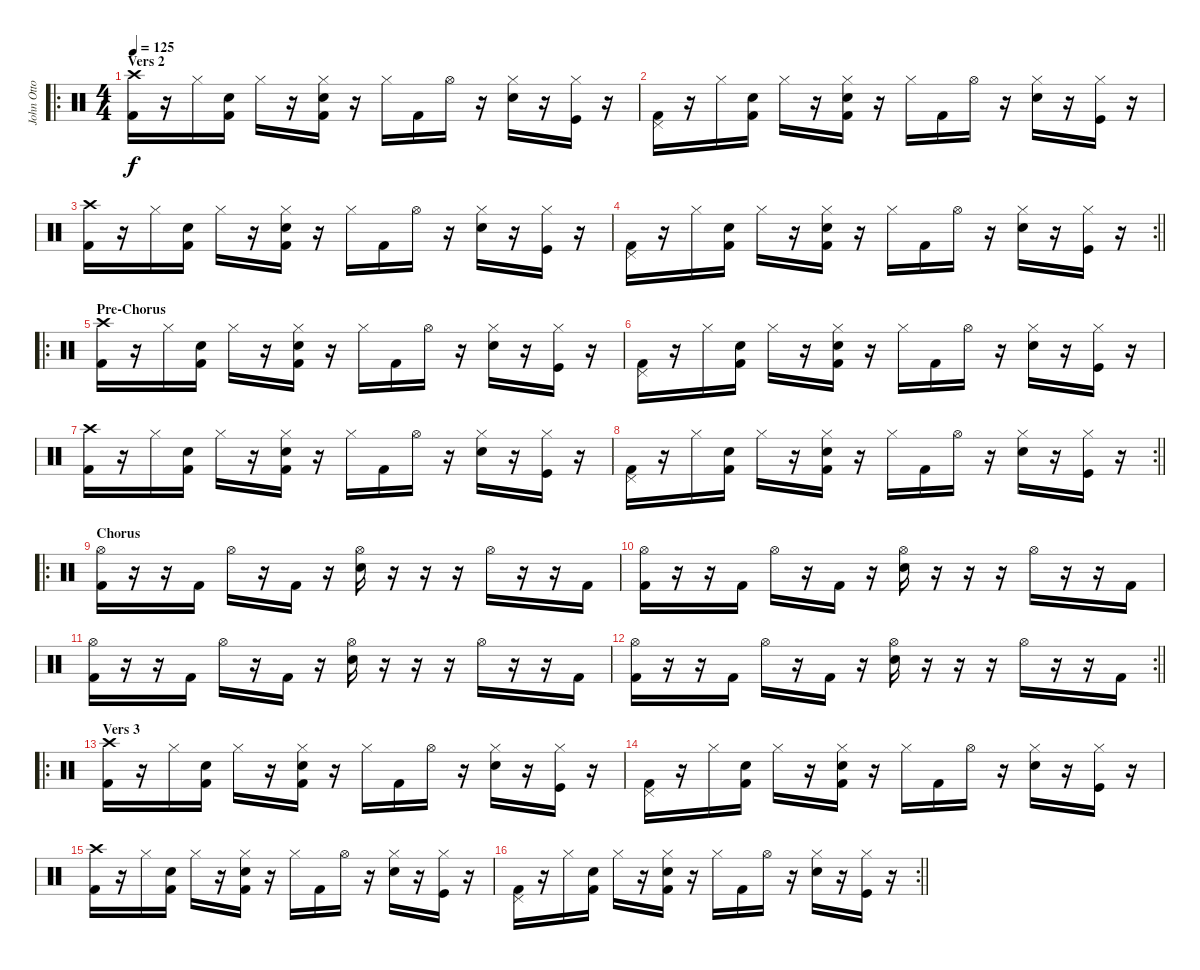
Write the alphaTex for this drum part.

\track ("John Otto" "John Otto") {instrument percussion}
\staff {score}
\articulation defaults
\ro
\ts (4 4)
\section ("" "Vers 2")
\tempo 125
\clef neutral
\ks c
("Crash high (hit)" "Kick (hit) 2").16{dy f} r.16 "Hi-Hat (closed)".16 ("Electric Snare (hit)" "Kick (hit) 2").16 "Hi-Hat (closed)".16 r.16 ("Hi-Hat (closed)" "Snare (hit) 2" "Kick (hit) 2").16 r.16 "Hi-Hat (closed)".16 "Kick (hit) 2".16 "Hi-Hat (open)".16 r.16 ("Hi-Hat (closed)" "Snare (hit) 2").16 r.16 ("Hi-Hat (closed)" "Kick (hit)").16 r.16 |
("Pedal Hi-Hat (hit)" "Kick (hit) 2").16 r.16 "Hi-Hat (closed)".16 ("Electric Snare (hit)" "Kick (hit) 2").16 "Hi-Hat (closed)".16 r.16 ("Hi-Hat (closed)" "Snare (hit) 2" "Kick (hit) 2").16 r.16 "Hi-Hat (closed)".16 "Kick (hit) 2".16 "Hi-Hat (open)".16 r.16 ("Hi-Hat (closed)" "Snare (hit) 2").16 r.16 ("Hi-Hat (closed)" "Kick (hit)").16 r.16 |
("Crash high (hit)" "Kick (hit) 2").16 r.16 "Hi-Hat (closed)".16 ("Electric Snare (hit)" "Kick (hit) 2").16 "Hi-Hat (closed)".16 r.16 ("Hi-Hat (closed)" "Snare (hit) 2" "Kick (hit) 2").16 r.16 "Hi-Hat (closed)".16 "Kick (hit) 2".16 "Hi-Hat (open)".16 r.16 ("Hi-Hat (closed)" "Snare (hit) 2").16 r.16 ("Hi-Hat (closed)" "Kick (hit)").16 r.16 |
\rc 2
\barLineRight lightlight
("Pedal Hi-Hat (hit)" "Kick (hit) 2").16 r.16 "Hi-Hat (closed)".16 ("Electric Snare (hit)" "Kick (hit) 2").16 "Hi-Hat (closed)".16 r.16 ("Hi-Hat (closed)" "Snare (hit) 2" "Kick (hit) 2").16 r.16 "Hi-Hat (closed)".16 "Kick (hit) 2".16 "Hi-Hat (open)".16 r.16 ("Hi-Hat (closed)" "Snare (hit) 2").16 r.16 ("Hi-Hat (closed)" "Kick (hit)").16 r.16 |
\ro
\section ("" "Pre-Chorus")
("Crash high (hit)" "Kick (hit) 2").16 r.16 "Hi-Hat (closed)".16 ("Electric Snare (hit)" "Kick (hit) 2").16 "Hi-Hat (closed)".16 r.16 ("Hi-Hat (closed)" "Snare (hit) 2" "Kick (hit) 2").16 r.16 "Hi-Hat (closed)".16 "Kick (hit) 2".16 "Hi-Hat (open)".16 r.16 ("Hi-Hat (closed)" "Snare (hit) 2").16 r.16 ("Hi-Hat (closed)" "Kick (hit)").16 r.16 |
("Pedal Hi-Hat (hit)" "Kick (hit) 2").16 r.16 "Hi-Hat (closed)".16 ("Electric Snare (hit)" "Kick (hit) 2").16 "Hi-Hat (closed)".16 r.16 ("Hi-Hat (closed)" "Snare (hit) 2" "Kick (hit) 2").16 r.16 "Hi-Hat (closed)".16 "Kick (hit) 2".16 "Hi-Hat (open)".16 r.16 ("Hi-Hat (closed)" "Snare (hit) 2").16 r.16 ("Hi-Hat (closed)" "Kick (hit)").16 r.16 |
("Crash high (hit)" "Kick (hit) 2").16 r.16 "Hi-Hat (closed)".16 ("Electric Snare (hit)" "Kick (hit) 2").16 "Hi-Hat (closed)".16 r.16 ("Hi-Hat (closed)" "Snare (hit) 2" "Kick (hit) 2").16 r.16 "Hi-Hat (closed)".16 "Kick (hit) 2".16 "Hi-Hat (open)".16 r.16 ("Hi-Hat (closed)" "Snare (hit) 2").16 r.16 ("Hi-Hat (closed)" "Kick (hit)").16 r.16 |
\rc 2
\barLineRight lightlight
("Pedal Hi-Hat (hit)" "Kick (hit) 2").16 r.16 "Hi-Hat (closed)".16 ("Electric Snare (hit)" "Kick (hit) 2").16 "Hi-Hat (closed)".16 r.16 ("Hi-Hat (closed)" "Snare (hit) 2" "Kick (hit) 2").16 r.16 "Hi-Hat (closed)".16 "Kick (hit) 2".16 "Hi-Hat (open)".16 r.16 ("Hi-Hat (closed)" "Snare (hit) 2").16 r.16 ("Hi-Hat (closed)" "Kick (hit)").16 r.16 |
\ro
\section ("" "Chorus")
("Hi-Hat (open)" "Kick (hit) 2").16 r.16 r.16 "Kick (hit) 2".16 "Hi-Hat (open)".16 r.16 "Kick (hit) 2".16 r.16 ("Hi-Hat (open)" "Snare (hit) 2").16 r.16 r.16 r.16 "Hi-Hat (open)".16 r.16 r.16 "Kick (hit) 2".16 |
("Hi-Hat (open)" "Kick (hit) 2").16 r.16 r.16 "Kick (hit) 2".16 "Hi-Hat (open)".16 r.16 "Kick (hit) 2".16 r.16 ("Hi-Hat (open)" "Snare (hit) 2").16 r.16 r.16 r.16 "Hi-Hat (open)".16 r.16 r.16 "Kick (hit) 2".16 |
("Hi-Hat (open)" "Kick (hit) 2").16 r.16 r.16 "Kick (hit) 2".16 "Hi-Hat (open)".16 r.16 "Kick (hit) 2".16 r.16 ("Hi-Hat (open)" "Snare (hit) 2").16 r.16 r.16 r.16 "Hi-Hat (open)".16 r.16 r.16 "Kick (hit) 2".16 |
\rc 2
\barLineRight lightlight
("Hi-Hat (open)" "Kick (hit) 2").16 r.16 r.16 "Kick (hit) 2".16 "Hi-Hat (open)".16 r.16 "Kick (hit) 2".16 r.16 ("Hi-Hat (open)" "Snare (hit) 2").16 r.16 r.16 r.16 "Hi-Hat (open)".16 r.16 r.16 "Kick (hit) 2".16 |
\ro
\section ("" "Vers 3")
("Crash high (hit)" "Kick (hit) 2").16 r.16 "Hi-Hat (closed)".16 ("Electric Snare (hit)" "Kick (hit) 2").16 "Hi-Hat (closed)".16 r.16 ("Hi-Hat (closed)" "Snare (hit) 2" "Kick (hit) 2").16 r.16 "Hi-Hat (closed)".16 "Kick (hit) 2".16 "Hi-Hat (open)".16 r.16 ("Hi-Hat (closed)" "Snare (hit) 2").16 r.16 ("Hi-Hat (closed)" "Kick (hit)").16 r.16 |
("Pedal Hi-Hat (hit)" "Kick (hit) 2").16 r.16 "Hi-Hat (closed)".16 ("Electric Snare (hit)" "Kick (hit) 2").16 "Hi-Hat (closed)".16 r.16 ("Hi-Hat (closed)" "Snare (hit) 2" "Kick (hit) 2").16 r.16 "Hi-Hat (closed)".16 "Kick (hit) 2".16 "Hi-Hat (open)".16 r.16 ("Hi-Hat (closed)" "Snare (hit) 2").16 r.16 ("Hi-Hat (closed)" "Kick (hit)").16 r.16 |
("Crash high (hit)" "Kick (hit) 2").16 r.16 "Hi-Hat (closed)".16 ("Electric Snare (hit)" "Kick (hit) 2").16 "Hi-Hat (closed)".16 r.16 ("Hi-Hat (closed)" "Snare (hit) 2" "Kick (hit) 2").16 r.16 "Hi-Hat (closed)".16 "Kick (hit) 2".16 "Hi-Hat (open)".16 r.16 ("Hi-Hat (closed)" "Snare (hit) 2").16 r.16 ("Hi-Hat (closed)" "Kick (hit)").16 r.16 |
\rc 2
\barLineRight lightlight
("Pedal Hi-Hat (hit)" "Kick (hit) 2").16 r.16 "Hi-Hat (closed)".16 ("Electric Snare (hit)" "Kick (hit) 2").16 "Hi-Hat (closed)".16 r.16 ("Hi-Hat (closed)" "Snare (hit) 2" "Kick (hit) 2").16 r.16 "Hi-Hat (closed)".16 "Kick (hit) 2".16 "Hi-Hat (open)".16 r.16 ("Hi-Hat (closed)" "Snare (hit) 2").16 r.16 ("Hi-Hat (closed)" "Kick (hit)").16 r.16
